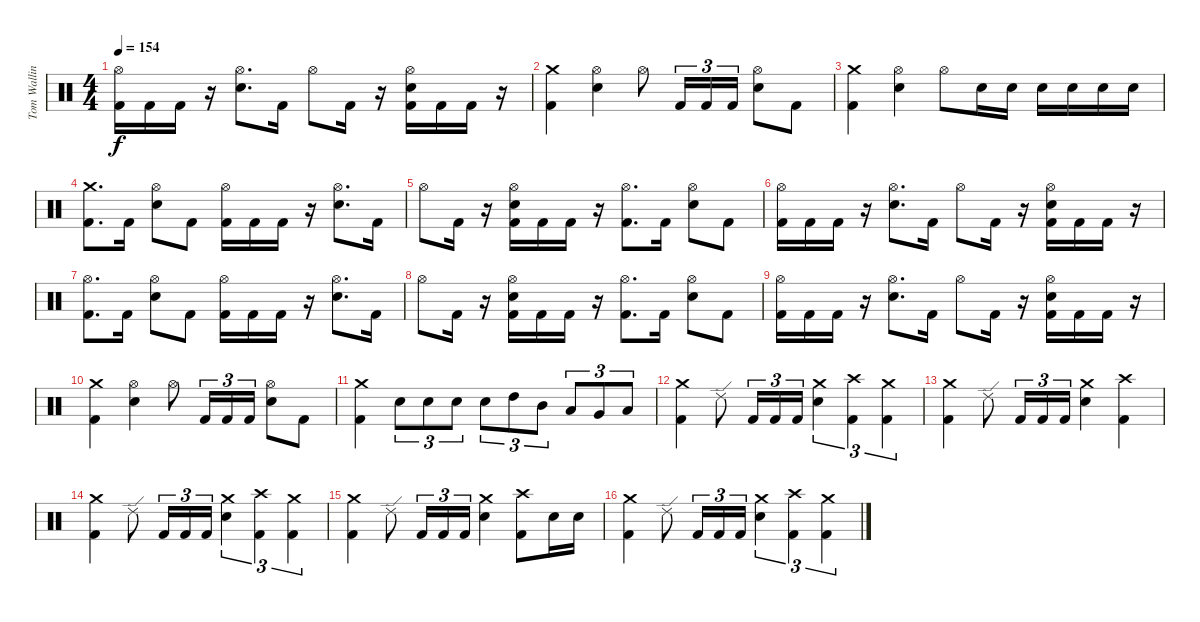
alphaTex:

\track ("Tom Walling" "Tom Wallin") {instrument percussion}
\staff {score}
\articulation defaults
\ts (4 4)
\tempo 154
\clef neutral
\ks c
("Hi-Hat (open)" "Kick (hit) 2").16{dy f} "Kick (hit) 2".16 "Kick (hit) 2".16 r.16 ("Hi-Hat (open)" "Electric Snare (hit)").8{d} "Kick (hit) 2".16 "Hi-Hat (open)".8 "Kick (hit) 2".16 r.16 ("Hi-Hat (open)" "Kick (hit) 2" "Electric Snare (hit)").16 "Kick (hit) 2".16 "Kick (hit) 2".16 r.16 |
("Kick (hit) 2" "Crash medium (hit)").4 ("Electric Snare (hit)" "Hi-Hat (open)").4 "Hi-Hat (open)".8 "Kick (hit) 2".16{tu (3 2)} "Kick (hit) 2".16{tu (3 2)} "Kick (hit) 2".16{tu (3 2)} ("Electric Snare (hit)" "Hi-Hat (open)").8 "Kick (hit) 2".8 |
("Kick (hit) 2" "Crash medium (hit)").4 ("Electric Snare (hit)" "Hi-Hat (open)").4 "Hi-Hat (open)".8 "Electric Snare (hit)".16 "Electric Snare (hit)".16 "Electric Snare (hit)".16 "Electric Snare (hit)".16 "Electric Snare (hit)".16 "Electric Snare (hit)".16 |
("Crash medium (hit)" "Kick (hit) 2").8{d} "Kick (hit) 2".16 ("Hi-Hat (open)" "Electric Snare (hit)").8 "Kick (hit) 2".8 ("Hi-Hat (open)" "Kick (hit) 2").16 "Kick (hit) 2".16 "Kick (hit) 2".16 r.16 ("Hi-Hat (open)" "Electric Snare (hit)").8{d} "Kick (hit) 2".16 |
"Hi-Hat (open)".8 "Kick (hit) 2".16 r.16 ("Electric Snare (hit)" "Kick (hit) 2" "Hi-Hat (open)").16 "Kick (hit) 2".16 "Kick (hit) 2".16 r.16 ("Kick (hit) 2" "Hi-Hat (open)").8{d} "Kick (hit) 2".16 ("Electric Snare (hit)" "Hi-Hat (open)").8 "Kick (hit) 2".8 |
("Hi-Hat (open)" "Kick (hit) 2").16 "Kick (hit) 2".16 "Kick (hit) 2".16 r.16 ("Hi-Hat (open)" "Electric Snare (hit)").8{d} "Kick (hit) 2".16 "Hi-Hat (open)".8 "Kick (hit) 2".16 r.16 ("Hi-Hat (open)" "Kick (hit) 2" "Electric Snare (hit)").16 "Kick (hit) 2".16 "Kick (hit) 2".16 r.16 |
("Hi-Hat (open)" "Kick (hit) 2").8{d} "Kick (hit) 2".16 ("Hi-Hat (open)" "Electric Snare (hit)").8 "Kick (hit) 2".8 ("Kick (hit) 2" "Hi-Hat (open)").16 "Kick (hit) 2".16 "Kick (hit) 2".16 r.16 ("Electric Snare (hit)" "Hi-Hat (open)").8{d} "Kick (hit) 2".16 |
"Hi-Hat (open)".8 "Kick (hit) 2".16 r.16 ("Electric Snare (hit)" "Kick (hit) 2" "Hi-Hat (open)").16 "Kick (hit) 2".16 "Kick (hit) 2".16 r.16 ("Kick (hit) 2" "Hi-Hat (open)").8{d} "Kick (hit) 2".16 ("Electric Snare (hit)" "Hi-Hat (open)").8 "Kick (hit) 2".8 |
("Hi-Hat (open)" "Kick (hit) 2").16 "Kick (hit) 2".16 "Kick (hit) 2".16 r.16 ("Hi-Hat (open)" "Electric Snare (hit)").8{d} "Kick (hit) 2".16 "Hi-Hat (open)".8 "Kick (hit) 2".16 r.16 ("Hi-Hat (open)" "Kick (hit) 2" "Electric Snare (hit)").16 "Kick (hit) 2".16 "Kick (hit) 2".16 r.16 |
("Kick (hit) 2" "Crash medium (hit)").4 ("Electric Snare (hit)" "Hi-Hat (open)").4 "Hi-Hat (open)".8 "Kick (hit) 2".16{tu (3 2)} "Kick (hit) 2".16{tu (3 2)} "Kick (hit) 2".16{tu (3 2)} ("Electric Snare (hit)" "Hi-Hat (open)").8 "Kick (hit) 2".8 |
("Crash medium (hit)" "Kick (hit) 2").4 "Electric Snare (hit)".8{tu (3 2)} "Electric Snare (hit)".8{tu (3 2)} "Electric Snare (hit)".8{tu (3 2)} "Electric Snare (hit)".8{tu (3 2)} "High Tom (hit)".8{tu (3 2)} "Mid Tom (hit)".8{tu (3 2)} "Low Tom (hit)".8{tu (3 2)} "Very Low Tom (hit)".8{tu (3 2)} "Low Floor Tom (hit)".8{tu (3 2)} |
("Kick (hit) 2" "Crash medium (hit)").4 "Ride (edge) 2".8 "Kick (hit) 2".16{tu (3 2)} "Kick (hit) 2".16{tu (3 2)} "Kick (hit) 2".16{tu (3 2)} ("Electric Snare (hit)" "Crash medium (hit)").4{tu (3 2)} ("Crash high (hit)" "Kick (hit) 2").4{tu (3 2)} ("Crash medium (hit)" "Kick (hit) 2").4{tu (3 2)} |
("Crash medium (hit)" "Kick (hit) 2").4 "Ride (edge) 2".8 "Kick (hit) 2".16{tu (3 2)} "Kick (hit) 2".16{tu (3 2)} "Kick (hit) 2".16{tu (3 2)} ("Crash medium (hit)" "Electric Snare (hit)").4 ("Crash high (hit)" "Kick (hit) 2").4 |
("Kick (hit) 2" "Crash medium (hit)").4 "Ride (edge) 2".8 "Kick (hit) 2".16{tu (3 2)} "Kick (hit) 2".16{tu (3 2)} "Kick (hit) 2".16{tu (3 2)} ("Electric Snare (hit)" "Crash medium (hit)").4{tu (3 2)} ("Crash high (hit)" "Kick (hit) 2").4{tu (3 2)} ("Crash medium (hit)" "Kick (hit) 2").4{tu (3 2)} |
("Crash medium (hit)" "Kick (hit) 2").4 "Ride (edge) 2".8 "Kick (hit) 2".16{tu (3 2)} "Kick (hit) 2".16{tu (3 2)} "Kick (hit) 2".16{tu (3 2)} ("Crash medium (hit)" "Electric Snare (hit)").4 ("Crash high (hit)" "Kick (hit) 2").8 "Electric Snare (hit)".16 "Electric Snare (hit)".16 |
("Kick (hit) 2" "Crash medium (hit)").4 "Ride (edge) 2".8 "Kick (hit) 2".16{tu (3 2)} "Kick (hit) 2".16{tu (3 2)} "Kick (hit) 2".16{tu (3 2)} ("Electric Snare (hit)" "Crash medium (hit)").4{tu (3 2)} ("Crash high (hit)" "Kick (hit) 2").4{tu (3 2)} ("Crash medium (hit)" "Kick (hit) 2").4{tu (3 2)}
